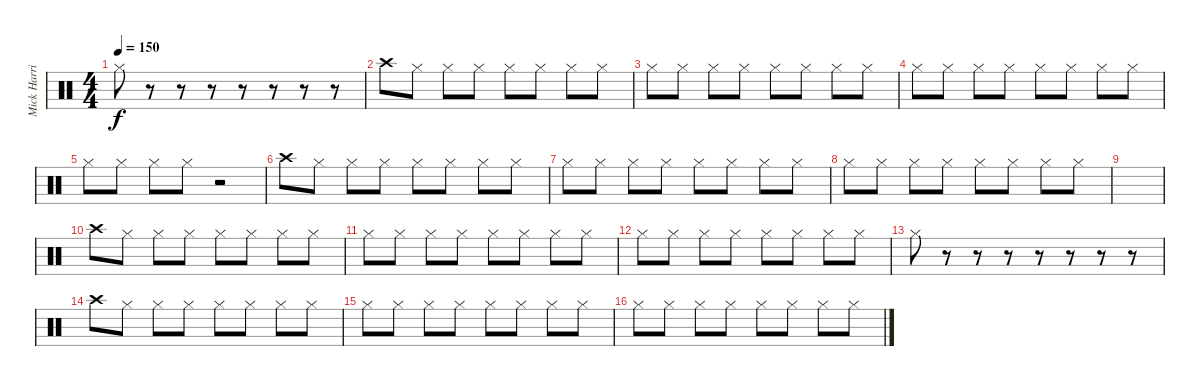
\track ("Mick Harris" "Mick Harri") {instrument percussion}
\staff {score}
\articulation defaults
\ts (4 4)
\tempo 150
\clef neutral
\ks c "Hi-Hat (closed)".8{dy f}
r.8 r.8 r.8 r.8 r.8 r.8 r.8 |
"Crash high (hit)".8 "Hi-Hat (closed)".8 "Hi-Hat (closed)".8 "Hi-Hat (closed)".8 "Hi-Hat (closed)".8 "Hi-Hat (closed)".8 "Hi-Hat (closed)".8 "Hi-Hat (closed)".8 |
"Hi-Hat (closed)".8 "Hi-Hat (closed)".8 "Hi-Hat (closed)".8 "Hi-Hat (closed)".8 "Hi-Hat (closed)".8 "Hi-Hat (closed)".8 "Hi-Hat (closed)".8 "Hi-Hat (closed)".8 |
"Hi-Hat (closed)".8 "Hi-Hat (closed)".8 "Hi-Hat (closed)".8 "Hi-Hat (closed)".8 "Hi-Hat (closed)".8 "Hi-Hat (closed)".8 "Hi-Hat (closed)".8 "Hi-Hat (closed)".8 |
"Hi-Hat (closed)".8 "Hi-Hat (closed)".8 "Hi-Hat (closed)".8 "Hi-Hat (closed)".8 r.2 |
"Crash high (hit)".8 "Hi-Hat (closed)".8 "Hi-Hat (closed)".8 "Hi-Hat (closed)".8 "Hi-Hat (closed)".8 "Hi-Hat (closed)".8 "Hi-Hat (closed)".8 "Hi-Hat (closed)".8 |
"Hi-Hat (closed)".8 "Hi-Hat (closed)".8 "Hi-Hat (closed)".8 "Hi-Hat (closed)".8 "Hi-Hat (closed)".8 "Hi-Hat (closed)".8 "Hi-Hat (closed)".8 "Hi-Hat (closed)".8 |
"Hi-Hat (closed)".8 "Hi-Hat (closed)".8 "Hi-Hat (closed)".8 "Hi-Hat (closed)".8 "Hi-Hat (closed)".8 "Hi-Hat (closed)".8 "Hi-Hat (closed)".8 "Hi-Hat (closed)".8 |
|
"Crash high (hit)".8 "Hi-Hat (closed)".8 "Hi-Hat (closed)".8 "Hi-Hat (closed)".8 "Hi-Hat (closed)".8 "Hi-Hat (closed)".8 "Hi-Hat (closed)".8 "Hi-Hat (closed)".8 |
"Hi-Hat (closed)".8 "Hi-Hat (closed)".8 "Hi-Hat (closed)".8 "Hi-Hat (closed)".8 "Hi-Hat (closed)".8 "Hi-Hat (closed)".8 "Hi-Hat (closed)".8 "Hi-Hat (closed)".8 |
"Hi-Hat (closed)".8 "Hi-Hat (closed)".8 "Hi-Hat (closed)".8 "Hi-Hat (closed)".8 "Hi-Hat (closed)".8 "Hi-Hat (closed)".8 "Hi-Hat (closed)".8 "Hi-Hat (closed)".8 |
"Hi-Hat (closed)".8 r.8 r.8 r.8 r.8 r.8 r.8 r.8 |
"Crash high (hit)".8 "Hi-Hat (closed)".8 "Hi-Hat (closed)".8 "Hi-Hat (closed)".8 "Hi-Hat (closed)".8 "Hi-Hat (closed)".8 "Hi-Hat (closed)".8 "Hi-Hat (closed)".8 |
"Hi-Hat (closed)".8 "Hi-Hat (closed)".8 "Hi-Hat (closed)".8 "Hi-Hat (closed)".8 "Hi-Hat (closed)".8 "Hi-Hat (closed)".8 "Hi-Hat (closed)".8 "Hi-Hat (closed)".8 |
"Hi-Hat (closed)".8 "Hi-Hat (closed)".8 "Hi-Hat (closed)".8 "Hi-Hat (closed)".8 "Hi-Hat (closed)".8 "Hi-Hat (closed)".8 "Hi-Hat (closed)".8 "Hi-Hat (closed)".8
